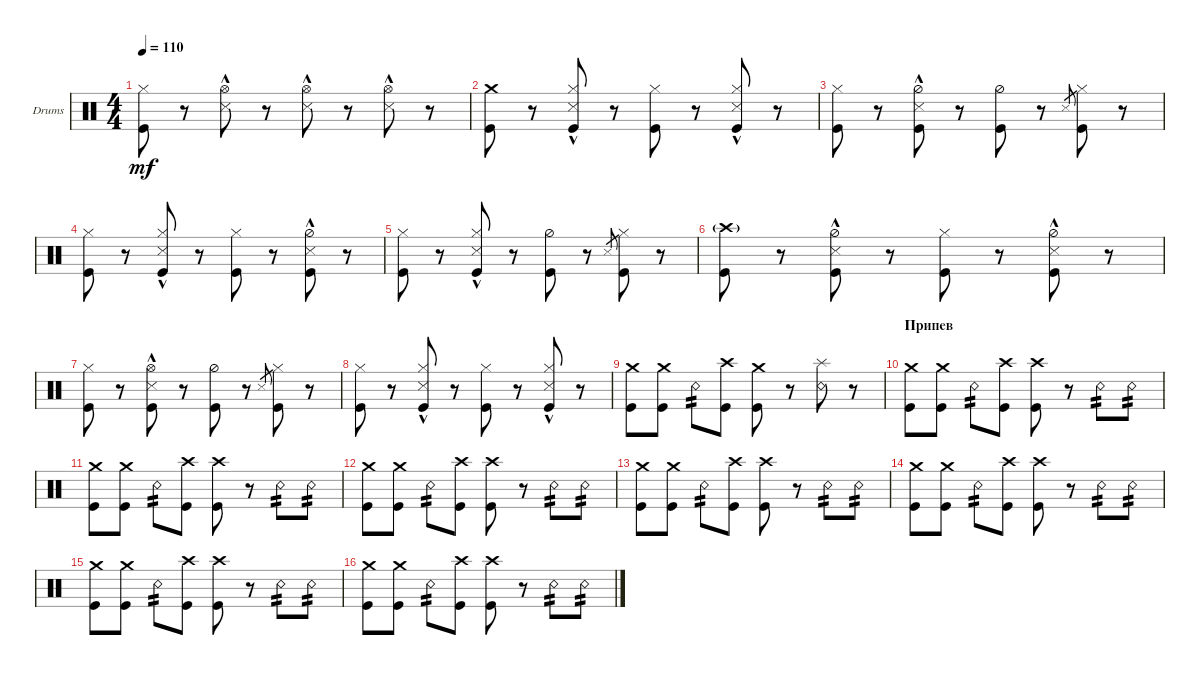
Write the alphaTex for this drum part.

\defaultSystemsLayout 4
\bracketExtendMode groupsimilarinstruments
\firstSystemTrackNameOrientation horizontal
\otherSystemsTrackNameOrientation horizontal
\track ("Drumkit" "Drums") {instrument percussion}
\staff {score}
\articulation defaults
\ts (4 4)
\tempo 110
\clef neutral
\scale
0.333333
\ks c
("Kick (hit)" "Hi-Hat (closed)").8{dy mf} r.8 ("Snare (side stick) 3"{hac} "Hi-Hat (open)").8 r.8 ("Hi-Hat (open)" "Snare (side stick) 3"{hac}).8 r.8 ("Hi-Hat (open)" "Snare (side stick) 3"{hac}).8 r.8 |
\scale
0.333333 ("Kick (hit)" "Crash medium (hit)").8 r.8 ("Snare (side stick) 3"{hac} "Hi-Hat (closed)" "Kick (hit)").8 r.8 ("Kick (hit)" "Hi-Hat (closed)").8 r.8 ("Snare (side stick) 3"{hac} "Hi-Hat (closed)" "Kick (hit)").8 r.8 |
\scale
0.333333 ("Kick (hit)" "Hi-Hat (closed)").8 r.8 ("Snare (side stick) 3"{hac} "Hi-Hat (half)" "Kick (hit)").8 r.8 ("Kick (hit)" "Hi-Hat (half)").8 r.8 "Snare (side stick) 3".8{gr} ("Hi-Hat (closed)" "Kick (hit)").8 r.8 |
\scale
0.333333 ("Kick (hit)" "Hi-Hat (closed)").8 r.8 ("Snare (side stick) 3"{hac} "Hi-Hat (closed)" "Kick (hit)").8 r.8 ("Kick (hit)" "Hi-Hat (closed)").8 r.8 ("Snare (side stick) 3"{hac} "Hi-Hat (half)" "Kick (hit)").8 r.8 |
\scale
0.333333 ("Kick (hit)" "Hi-Hat (closed)").8 r.8 ("Snare (side stick) 3"{hac} "Hi-Hat (closed)" "Kick (hit)").8 r.8 ("Kick (hit)" "Hi-Hat (half)").8 r.8 "Snare (side stick) 3".8{gr} ("Hi-Hat (closed)" "Kick (hit)").8 r.8 |
\scale
0.333333 ("Kick (hit)" "Crash high (hit)"{g}).8 r.8 ("Snare (side stick) 3"{hac} "Hi-Hat (half)" "Kick (hit)").8 r.8 ("Kick (hit)" "Hi-Hat (closed)").8 r.8 ("Snare (side stick) 3"{hac} "Hi-Hat (half)" "Kick (hit)").8 r.8 |
\scale
0.333333 ("Kick (hit)" "Hi-Hat (closed)").8 r.8 ("Snare (side stick) 3"{hac} "Hi-Hat (open)" "Kick (hit)").8 r.8 ("Kick (hit)" "Hi-Hat (half)").8 r.8 "Snare (side stick) 3".8{gr} ("Hi-Hat (closed)" "Kick (hit)").8 r.8 |
\scale
0.333333 ("Kick (hit)" "Hi-Hat (closed)").8 r.8 ("Snare (side stick) 3"{hac} "Hi-Hat (closed)" "Kick (hit)").8 r.8 ("Kick (hit)" "Hi-Hat (closed)").8 r.8 ("Snare (side stick) 3"{hac} "Hi-Hat (closed)" "Kick (hit)").8 r.8 |
\scale
0.333333 ("Kick (hit)" "Crash medium (hit)").8 ("Kick (hit)" "Crash medium (hit)").8 "Snare (rim shot)".8{tp 2} ("Kick (hit)" "Crash high (hit)").8 ("Kick (hit)" "Crash medium (hit)").8 r.8 ("Snare (rim shot)" "Splash (hit)").8 r.8 |
\section ("" "Припев")
\scale
0.333333 ("Kick (hit)" "Crash medium (hit)").8 ("Kick (hit)" "Crash medium (hit)").8 "Snare (rim shot)".8{tp 2} ("Kick (hit)" "Crash high (hit)").8 ("Kick (hit)" "Crash high (hit)").8 r.8 "Snare (rim shot)".8{tp 2} "Snare (rim shot)".8{tp 2} |
\scale
0.333333 ("Kick (hit)" "Crash medium (hit)").8 ("Kick (hit)" "Crash medium (hit)").8 "Snare (rim shot)".8{tp 2} ("Kick (hit)" "Crash high (hit)").8 ("Kick (hit)" "Crash high (hit)").8 r.8 "Snare (rim shot)".8{tp 2} "Snare (rim shot)".8{tp 2} |
\scale
0.333333 ("Kick (hit)" "Crash medium (hit)").8 ("Kick (hit)" "Crash medium (hit)").8 "Snare (rim shot)".8{tp 2} ("Kick (hit)" "Crash high (hit)").8 ("Kick (hit)" "Crash high (hit)").8 r.8 "Snare (rim shot)".8{tp 2} "Snare (rim shot)".8{tp 2} |
\scale
0.333333 ("Kick (hit)" "Crash medium (hit)").8 ("Kick (hit)" "Crash medium (hit)").8 "Snare (rim shot)".8{tp 2} ("Kick (hit)" "Crash high (hit)").8 ("Kick (hit)" "Crash high (hit)").8 r.8 "Snare (rim shot)".8{tp 2} "Snare (rim shot)".8{tp 2} |
\scale
0.333333 ("Kick (hit)" "Crash medium (hit)").8 ("Kick (hit)" "Crash medium (hit)").8 "Snare (rim shot)".8{tp 2} ("Kick (hit)" "Crash high (hit)").8 ("Kick (hit)" "Crash high (hit)").8 r.8 "Snare (rim shot)".8{tp 2} "Snare (rim shot)".8{tp 2} |
\scale
0.333333 ("Kick (hit)" "Crash medium (hit)").8 ("Kick (hit)" "Crash medium (hit)").8 "Snare (rim shot)".8{tp 2} ("Kick (hit)" "Crash high (hit)").8 ("Kick (hit)" "Crash high (hit)").8 r.8 "Snare (rim shot)".8{tp 2} "Snare (rim shot)".8{tp 2} |
\scale
0.333333 ("Kick (hit)" "Crash medium (hit)").8 ("Kick (hit)" "Crash medium (hit)").8 "Snare (rim shot)".8{tp 2} ("Kick (hit)" "Crash high (hit)").8 ("Kick (hit)" "Crash high (hit)").8 r.8 "Snare (rim shot)".8{tp 2} "Snare (rim shot)".8{tp 2}
